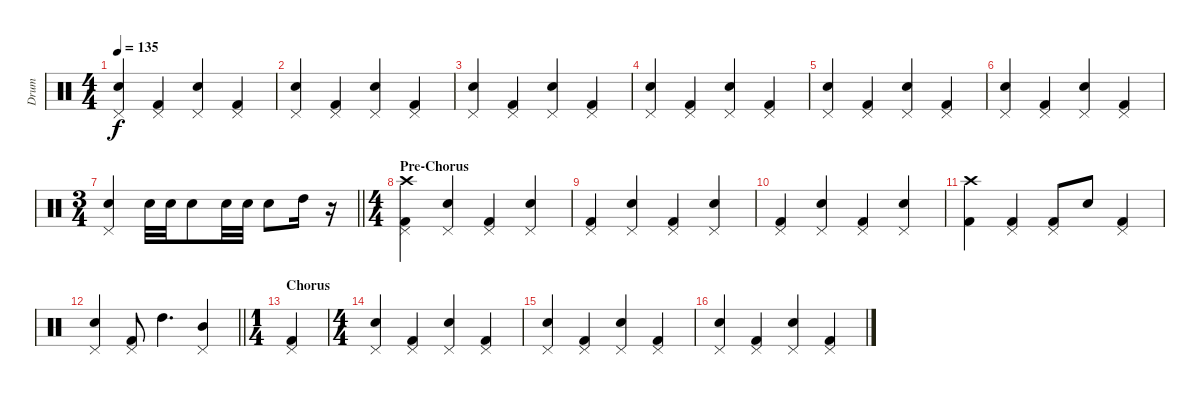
\track ("Drum" "Drum") {instrument percussion}
\staff {score}
\articulation defaults
\ts (4 4)
\tempo 135
\clef neutral
\ks c
("Electric Snare (hit)" "Pedal Hi-Hat (hit)").4{dy f} ("Kick (hit) 2" "Pedal Hi-Hat (hit)").4 ("Electric Snare (hit)" "Pedal Hi-Hat (hit)").4 ("Kick (hit) 2" "Pedal Hi-Hat (hit)").4 |
("Electric Snare (hit)" "Pedal Hi-Hat (hit)").4 ("Kick (hit) 2" "Pedal Hi-Hat (hit)").4 ("Electric Snare (hit)" "Pedal Hi-Hat (hit)").4 ("Kick (hit) 2" "Pedal Hi-Hat (hit)").4 |
("Electric Snare (hit)" "Pedal Hi-Hat (hit)").4 ("Kick (hit) 2" "Pedal Hi-Hat (hit)").4 ("Electric Snare (hit)" "Pedal Hi-Hat (hit)").4 ("Kick (hit) 2" "Pedal Hi-Hat (hit)").4 |
("Electric Snare (hit)" "Pedal Hi-Hat (hit)").4 ("Kick (hit) 2" "Pedal Hi-Hat (hit)").4 ("Electric Snare (hit)" "Pedal Hi-Hat (hit)").4 ("Kick (hit) 2" "Pedal Hi-Hat (hit)").4 |
("Electric Snare (hit)" "Pedal Hi-Hat (hit)").4 ("Kick (hit) 2" "Pedal Hi-Hat (hit)").4 ("Electric Snare (hit)" "Pedal Hi-Hat (hit)").4 ("Kick (hit) 2" "Pedal Hi-Hat (hit)").4 |
("Electric Snare (hit)" "Pedal Hi-Hat (hit)").4 ("Kick (hit) 2" "Pedal Hi-Hat (hit)").4 ("Electric Snare (hit)" "Pedal Hi-Hat (hit)").4 ("Kick (hit) 2" "Pedal Hi-Hat (hit)").4 |
\ts (3 4)
\barLineRight lightlight
("Electric Snare (hit)" "Pedal Hi-Hat (hit)").4 "Electric Snare (hit)".32 "Electric Snare (hit)".32 "Electric Snare (hit)".8 "Electric Snare (hit)".32 "Electric Snare (hit)".32 "Electric Snare (hit)".8 "High Tom (hit)".16 r.16 |
\ts (4 4)
\section ("" "Pre-Chorus")
("Crash high (hit)" "Kick (hit) 2" "Pedal Hi-Hat (hit)").4 ("Electric Snare (hit)" "Pedal Hi-Hat (hit)").4 ("Kick (hit) 2" "Pedal Hi-Hat (hit)").4 ("Electric Snare (hit)" "Pedal Hi-Hat (hit)").4 |
("Kick (hit) 2" "Pedal Hi-Hat (hit)").4 ("Electric Snare (hit)" "Pedal Hi-Hat (hit)").4 ("Kick (hit) 2" "Pedal Hi-Hat (hit)").4 ("Electric Snare (hit)" "Pedal Hi-Hat (hit)").4 |
("Kick (hit) 2" "Pedal Hi-Hat (hit)").4 ("Electric Snare (hit)" "Pedal Hi-Hat (hit)").4 ("Kick (hit) 2" "Pedal Hi-Hat (hit)").4 ("Electric Snare (hit)" "Pedal Hi-Hat (hit)").4 |
("Crash high (hit)" "Kick (hit) 2").4 ("Pedal Hi-Hat (hit)" "Kick (hit) 2").4 ("Pedal Hi-Hat (hit)" "Kick (hit) 2").8 "Electric Snare (hit)".8 ("Pedal Hi-Hat (hit)" "Kick (hit) 2").4 |
\barLineRight lightlight
("Pedal Hi-Hat (hit)" "Snare (hit) 2").4 ("Pedal Hi-Hat (hit)" "Kick (hit) 2").8 "High Tom (hit)".4{d} ("Pedal Hi-Hat (hit)" "Mid Tom (hit)").4 |
\ts (1 4)
\section ("" "Chorus")
("Kick (hit) 2" "Pedal Hi-Hat (hit)").4 |
\ts (4 4)
("Electric Snare (hit)" "Pedal Hi-Hat (hit)").4 ("Kick (hit) 2" "Pedal Hi-Hat (hit)").4 ("Electric Snare (hit)" "Pedal Hi-Hat (hit)").4 ("Kick (hit) 2" "Pedal Hi-Hat (hit)").4 |
("Electric Snare (hit)" "Pedal Hi-Hat (hit)").4 ("Kick (hit) 2" "Pedal Hi-Hat (hit)").4 ("Electric Snare (hit)" "Pedal Hi-Hat (hit)").4 ("Kick (hit) 2" "Pedal Hi-Hat (hit)").4 |
("Electric Snare (hit)" "Pedal Hi-Hat (hit)").4 ("Kick (hit) 2" "Pedal Hi-Hat (hit)").4 ("Electric Snare (hit)" "Pedal Hi-Hat (hit)").4 ("Kick (hit) 2" "Pedal Hi-Hat (hit)").4
